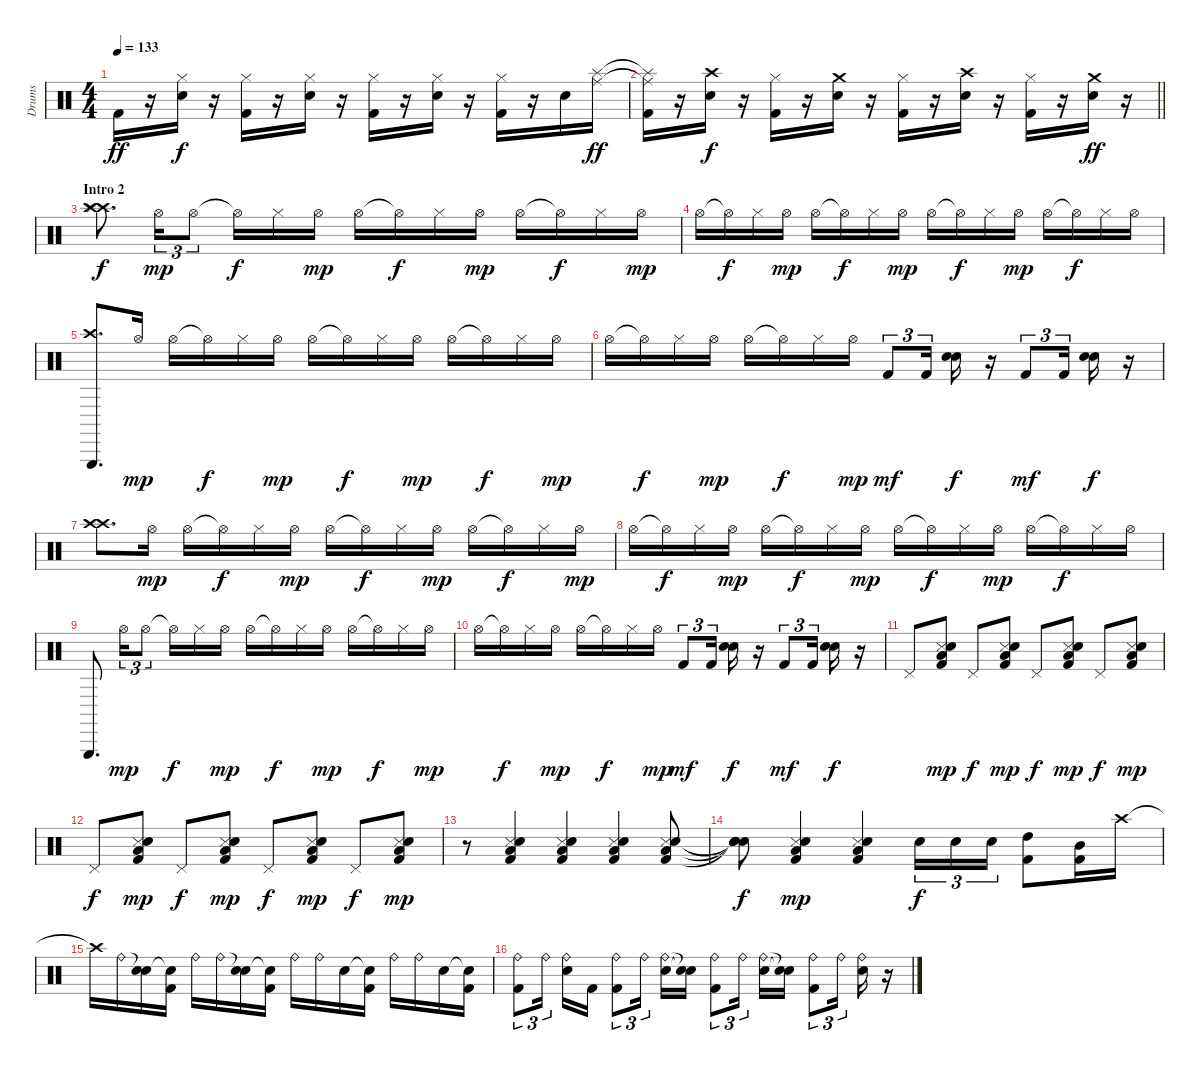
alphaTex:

\track ("Drums" "Drums") {instrument percussion}
\staff {score}
\articulation defaults
\ts (4 4)
\tempo 133
\clef neutral
\ks c "Kick (hit) 2".16{dy ff}
r.16 ("Hi-Hat (closed)" "Snare (hit) 2").16{dy f} r.16 ("Hi-Hat (closed)" "Kick (hit) 2").16 r.16 ("Hi-Hat (closed)" "Snare (hit) 2").16 r.16 ("Hi-Hat (closed)" "Kick (hit) 2").16 r.16 ("Hi-Hat (closed)" "Snare (hit) 2").16 r.16 ("Hi-Hat (closed)" "Kick (hit) 2").16 r.16 "Snare (hit) 2".16 ("Ride (middle)" "Splash (hit)").16{dy ff} |
\barLineRight lightlight
("Ride (middle)"{t} "Splash (hit)"{t} "Kick (hit) 2").16 r.16 ("Crash high (hit)" "Snare (hit) 2").16{dy f} r.16 ("Hi-Hat (closed)" "Kick (hit) 2").16 r.16 ("Crash medium (hit)" "Snare (hit) 2").16 r.16 ("Hi-Hat (closed)" "Kick (hit) 2").16 r.16 ("Crash high (hit)" "Snare (hit) 2").16 r.16 ("Hi-Hat (closed)" "Kick (hit) 2").16 r.16 ("Crash medium (hit)" "Snare (hit) 2").16{dy ff} r.16 |
\section ("" "Intro 2")
("Crash high (hit)" "Splash (hit)" "Crash high (hit)").8{d dy f} "Hi-Hat (open)".16{tu (3 2) dy mp} "Hi-Hat (open)".8{tu (3 2)} "Hi-Hat (open)"{t}.16{dy f} "Hi-Hat (closed)".16 "Hi-Hat (open)".16{dy mp} "Hi-Hat (open)".16 "Hi-Hat (open)"{t}.16{dy f} "Hi-Hat (closed)".16 "Hi-Hat (open)".16{dy mp} "Hi-Hat (open)".16 "Hi-Hat (open)"{t}.16{dy f} "Hi-Hat (closed)".16 "Hi-Hat (open)".16{dy mp} |
"Hi-Hat (open)".16 "Hi-Hat (open)"{t}.16{dy f} "Hi-Hat (closed)".16 "Hi-Hat (open)".16{dy mp} "Hi-Hat (open)".16 "Hi-Hat (open)"{t}.16{dy f} "Hi-Hat (closed)".16 "Hi-Hat (open)".16{dy mp} "Hi-Hat (open)".16 "Hi-Hat (open)"{t}.16{dy f} "Hi-Hat (closed)".16 "Hi-Hat (open)".16{dy mp} "Hi-Hat (open)".16 "Hi-Hat (open)"{t}.16{dy f} "Hi-Hat (closed)".16 "Hi-Hat (open)".16 |
("Triangle (hit)" "Crash high (hit)").8{d} "Hi-Hat (open)".16{dy mp} "Hi-Hat (open)".16 "Hi-Hat (open)"{t}.16{dy f} "Hi-Hat (closed)".16 "Hi-Hat (open)".16{dy mp} "Hi-Hat (open)".16 "Hi-Hat (open)"{t}.16{dy f} "Hi-Hat (closed)".16 "Hi-Hat (open)".16{dy mp} "Hi-Hat (open)".16 "Hi-Hat (open)"{t}.16{dy f} "Hi-Hat (closed)".16 "Hi-Hat (open)".16{dy mp} |
"Hi-Hat (open)".16 "Hi-Hat (open)"{t}.16{dy f} "Hi-Hat (closed)".16 "Hi-Hat (open)".16{dy mp} "Hi-Hat (open)".16 "Hi-Hat (open)"{t}.16{dy f} "Hi-Hat (closed)".16 "Hi-Hat (open)".16{dy mp} "Kick (hit) 2".8{tu (3 2) dy mf} "Kick (hit) 2".16{tu (3 2)} ("Electric Snare (hit)" "Electric Snare (hit)").16{dy f} r.16 "Kick (hit) 2".8{tu (3 2) dy mf} "Kick (hit) 2".16{tu (3 2)} ("Electric Snare (hit)" "Electric Snare (hit)").16{dy f} r.16 |
("Crash high (hit)" "Crash high (hit)").8{d} "Hi-Hat (open)".16{dy mp} "Hi-Hat (open)".16 "Hi-Hat (open)"{t}.16{dy f} "Hi-Hat (closed)".16 "Hi-Hat (open)".16{dy mp} "Hi-Hat (open)".16 "Hi-Hat (open)"{t}.16{dy f} "Hi-Hat (closed)".16 "Hi-Hat (open)".16{dy mp} "Hi-Hat (open)".16 "Hi-Hat (open)"{t}.16{dy f} "Hi-Hat (closed)".16 "Hi-Hat (open)".16{dy mp} |
"Hi-Hat (open)".16 "Hi-Hat (open)"{t}.16{dy f} "Hi-Hat (closed)".16 "Hi-Hat (open)".16{dy mp} "Hi-Hat (open)".16 "Hi-Hat (open)"{t}.16{dy f} "Hi-Hat (closed)".16 "Hi-Hat (open)".16{dy mp} "Hi-Hat (open)".16 "Hi-Hat (open)"{t}.16{dy f} "Hi-Hat (closed)".16 "Hi-Hat (open)".16{dy mp} "Hi-Hat (open)".16 "Hi-Hat (open)"{t}.16{dy f} "Hi-Hat (closed)".16 "Hi-Hat (open)".16 |
"Triangle (hit)".8{d} "Hi-Hat (open)".16{tu (3 2) dy mp} "Hi-Hat (open)".8{tu (3 2)} "Hi-Hat (open)"{t}.16{dy f} "Hi-Hat (closed)".16 "Hi-Hat (open)".16{dy mp} "Hi-Hat (open)".16 "Hi-Hat (open)"{t}.16{dy f} "Hi-Hat (closed)".16 "Hi-Hat (open)".16{dy mp} "Hi-Hat (open)".16 "Hi-Hat (open)"{t}.16{dy f} "Hi-Hat (closed)".16 "Hi-Hat (open)".16{dy mp} |
"Hi-Hat (open)".16 "Hi-Hat (open)"{t}.16{dy f} "Hi-Hat (closed)".16 "Hi-Hat (open)".16{dy mp} "Hi-Hat (open)".16 "Hi-Hat (open)"{t}.16{dy f} "Hi-Hat (closed)".16 "Hi-Hat (open)".16{dy mp} "Kick (hit) 2".8{tu (3 2) dy mf} "Kick (hit) 2".16{tu (3 2)} ("Electric Snare (hit)" "Electric Snare (hit)").16{dy f} r.16 "Kick (hit) 2".8{tu (3 2) dy mf} "Kick (hit) 2".16{tu (3 2)} ("Electric Snare (hit)" "Electric Snare (hit)").16{dy f} r.16 |
"Pedal Hi-Hat (hit)".8 ("Snare (side stick) 3" "Kick (hit) 2" "Low Tom (hit)" "Snare (hit) 2").8{dy mp} "Pedal Hi-Hat (hit)".8{dy f} ("Snare (side stick) 3" "Kick (hit) 2" "Low Tom (hit)" "Snare (hit) 2").8{dy mp} "Pedal Hi-Hat (hit)".8{dy f} ("Snare (side stick) 3" "Kick (hit) 2" "Low Tom (hit)" "Snare (hit) 2").8{dy mp} "Pedal Hi-Hat (hit)".8{dy f} ("Snare (side stick) 3" "Kick (hit) 2" "Low Tom (hit)" "Snare (hit) 2").8{dy mp} |
"Pedal Hi-Hat (hit)".8{dy f} ("Snare (side stick) 3" "Kick (hit) 2" "Low Tom (hit)" "Snare (hit) 2").8{dy mp} "Pedal Hi-Hat (hit)".8{dy f} ("Snare (side stick) 3" "Kick (hit) 2" "Low Tom (hit)" "Snare (hit) 2").8{dy mp} "Pedal Hi-Hat (hit)".8{dy f} ("Snare (side stick) 3" "Kick (hit) 2" "Low Tom (hit)" "Snare (hit) 2").8{dy mp} "Pedal Hi-Hat (hit)".8{dy f} ("Snare (side stick) 3" "Kick (hit) 2" "Low Tom (hit)" "Snare (hit) 2").8{dy mp} |
r.8 ("Snare (side stick) 3" "Kick (hit) 2" "Low Tom (hit)" "Snare (hit) 2").4 ("Snare (side stick) 3" "Kick (hit) 2" "Low Tom (hit)" "Snare (hit) 2").4 ("Snare (side stick) 3" "Kick (hit) 2" "Low Tom (hit)" "Snare (hit) 2").4 ("Snare (side stick) 3" "Kick (hit) 2" "Low Tom (hit)" "Snare (hit) 2").8 |
("Snare (hit)"{t} "Snare (hit)"{t} "Snare (hit)"{t} "Snare (hit)"{t}).8{dy f} ("Snare (side stick) 3" "Kick (hit) 2" "Low Tom (hit)" "Snare (hit) 2").4{dy mp} ("Snare (side stick) 3" "Kick (hit) 2" "Low Tom (hit)" "Snare (hit) 2").4 "Snare (hit) 2".16{tu (3 2) dy f} "Snare (hit) 2".16{tu (3 2)} "Snare (hit) 2".16{tu (3 2)} ("High Tom (hit)" "Kick (hit) 2").8 ("Mid Tom (hit)" "Kick (hit) 2").16 "Crash high (hit)".16 |
"Crash high (hit)"{t}.16 "Ride (bell)".16 ("Snare (hit)"{t} "Snare (hit) 2").16 ("Electric Snare (hit)"{t} "Kick (hit) 2").16 "Ride (bell)".16 "Ride (bell)".16 ("Snare (hit)"{t} "Snare (hit) 2").16 ("Electric Snare (hit)"{t} "Kick (hit) 2").16 "Ride (bell)".16 "Ride (bell)".16 "Snare (hit) 2".16 ("Snare (hit)"{t} "Kick (hit) 2").16 "Ride (bell)".16 "Ride (bell)".16 "Snare (hit) 2".16 ("Electric Snare (hit)"{t} "Kick (hit) 2").16 |
("Ride (bell)" "Kick (hit) 2").8{tu (3 2)} "Ride (bell)".16{tu (3 2) beam splitsecondary} ("Ride (bell)" "Snare (hit) 2").16 "Kick (hit) 2".16 ("Ride (bell)" "Kick (hit) 2").8{tu (3 2)} "Ride (bell)".16{tu (3 2) beam splitsecondary} ("Ride (bell)" "Snare (hit) 2").16 ("Snare (hit)"{t} "Snare (hit)"{t}).16 ("Ride (bell)" "Kick (hit) 2").8{tu (3 2)} "Ride (bell)".16{tu (3 2) beam splitsecondary} ("Ride (bell)" "Snare (hit) 2").16 ("Snare (hit)"{t} "Snare (hit)"{t}).16 ("Ride (bell)" "Kick (hit) 2").8{tu (3 2)} "Ride (bell)".16{tu (3 2)} ("Ride (bell)" "Snare (hit) 2").16 r.16
